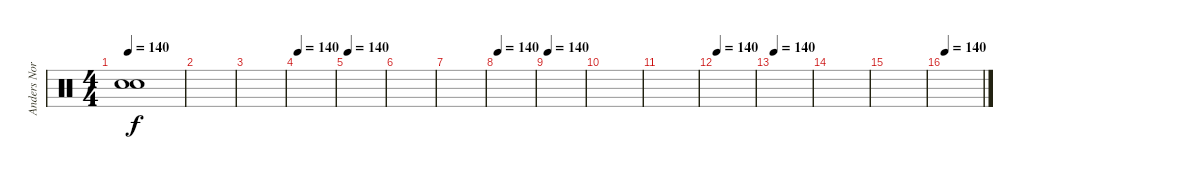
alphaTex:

\track ("Anders Nordin" "Anders Nor") {instrument percussion}
\staff {score}
\articulation defaults
\ts (4 4)
\tempo 140
\clef neutral
\ks c
("Snare (hit)"{t} "Snare (hit)"{t}).1{dy f} |
|
|
\tempo 140
|
\tempo 140
|
|
|
\tempo 140
|
\tempo 140
|
|
|
\tempo 140
|
\tempo 140
|
|
|
\tempo 140
